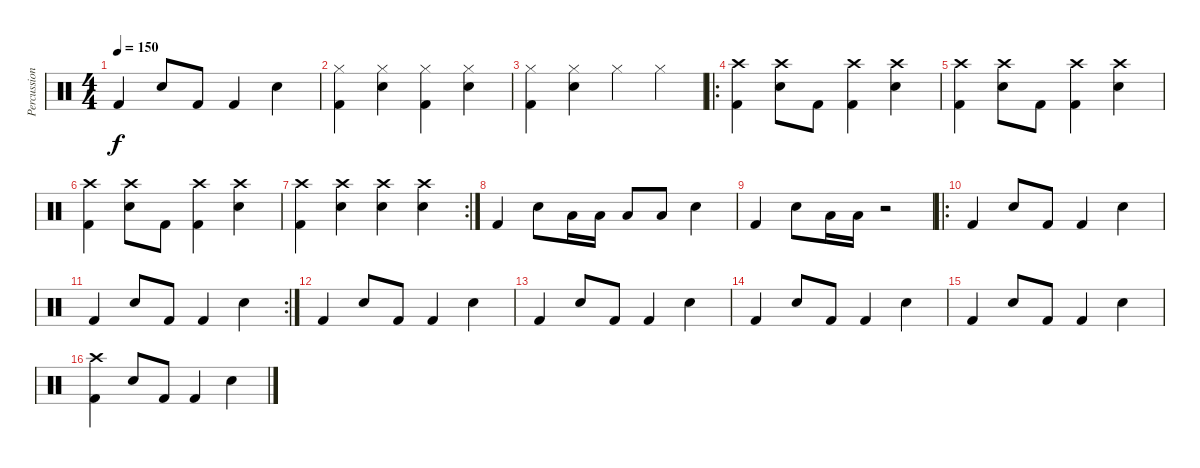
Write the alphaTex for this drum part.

\track ("Percussions" "Percussion") {instrument percussion}
\staff {score}
\articulation defaults
\ts (4 4)
\tempo 150
\clef neutral
\ks c "Kick (hit) 2".4{dy f} "Snare (hit) 2".8 "Kick (hit) 2".8 "Kick (hit) 2".4 "Snare (hit) 2".4
|
("Kick (hit) 2" "Hi-Hat (closed)").4 ("Snare (hit) 2" "Hi-Hat (closed)").4 ("Kick (hit) 2" "Hi-Hat (closed)").4 ("Snare (hit) 2" "Hi-Hat (closed)").4 |
("Kick (hit) 2" "Hi-Hat (closed)").4 ("Snare (hit) 2" "Hi-Hat (closed)").4 "Hi-Hat (closed)".4 "Hi-Hat (closed)".4 |
\ro
("Kick (hit) 2" "Crash high (hit)").4 ("Snare (hit) 2" "Crash high (hit)").8 "Kick (hit) 2".8 ("Kick (hit) 2" "Crash high (hit)").4 ("Snare (hit) 2" "Crash high (hit)").4 |
("Kick (hit) 2" "Crash high (hit)").4 ("Snare (hit) 2" "Crash high (hit)").8 "Kick (hit) 2".8 ("Kick (hit) 2" "Crash high (hit)").4 ("Snare (hit) 2" "Crash high (hit)").4 |
("Kick (hit) 2" "Crash high (hit)").4 ("Snare (hit) 2" "Crash high (hit)").8 "Kick (hit) 2".8 ("Kick (hit) 2" "Crash high (hit)").4 ("Snare (hit) 2" "Crash high (hit)").4 |
\rc 2
("Kick (hit) 2" "Crash high (hit)").4 ("Snare (hit) 2" "Crash high (hit)").4 ("Snare (hit) 2" "Crash high (hit)").4 ("Snare (hit) 2" "Crash high (hit)").4 |
"Kick (hit) 2".4 "Snare (hit) 2".8 "Low Floor Tom (hit)".16 "Low Floor Tom (hit)".16 "Low Floor Tom (hit)".8 "Low Floor Tom (hit)".8 "Snare (hit) 2".4 |
"Kick (hit) 2".4 "Snare (hit) 2".8 "Low Floor Tom (hit)".16 "Low Floor Tom (hit)".16 r.2 |
\ro "Kick (hit) 2".4 "Snare (hit) 2".8 "Kick (hit) 2".8 "Kick (hit) 2".4 "Snare (hit) 2".4
|
\rc 2 "Kick (hit) 2".4 "Snare (hit) 2".8 "Kick (hit) 2".8 "Kick (hit) 2".4 "Snare (hit) 2".4
|
"Kick (hit) 2".4 "Snare (hit) 2".8 "Kick (hit) 2".8 "Kick (hit) 2".4 "Snare (hit) 2".4 |
"Kick (hit) 2".4 "Snare (hit) 2".8 "Kick (hit) 2".8 "Kick (hit) 2".4 "Snare (hit) 2".4 |
"Kick (hit) 2".4 "Snare (hit) 2".8 "Kick (hit) 2".8 "Kick (hit) 2".4 "Snare (hit) 2".4 |
"Kick (hit) 2".4 "Snare (hit) 2".8 "Kick (hit) 2".8 "Kick (hit) 2".4 "Snare (hit) 2".4 |
("Kick (hit) 2" "Crash high (hit)").4 "Snare (hit) 2".8 "Kick (hit) 2".8 "Kick (hit) 2".4 "Snare (hit) 2".4
